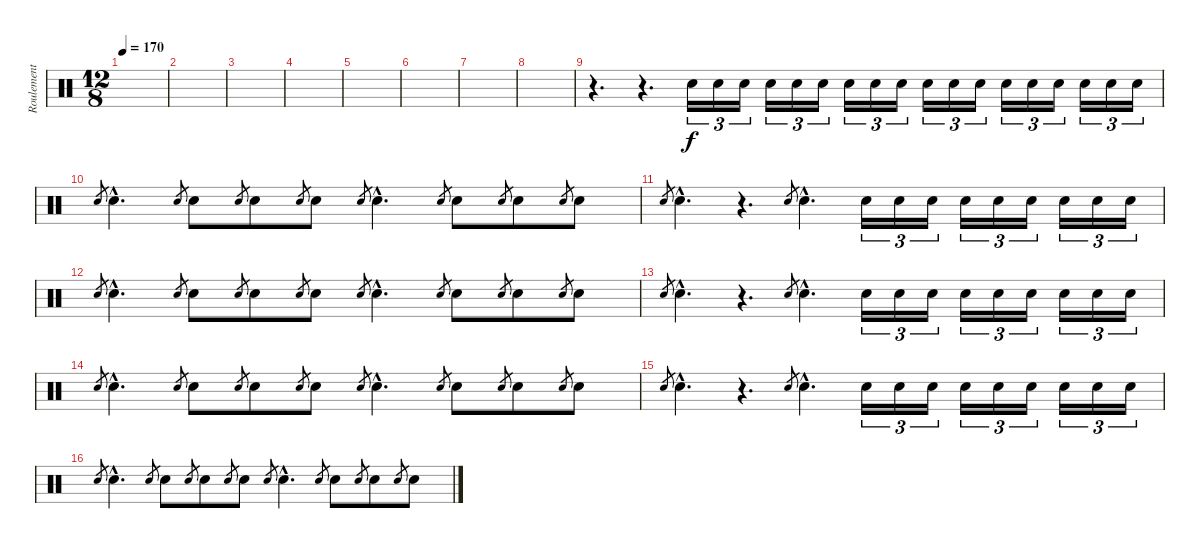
\track ("Roulement" "Roulement") {instrument percussion}
\staff {score}
\articulation defaults
\ts (12 8)
\tempo 170
\clef neutral
\ks c
|
|
|
|
|
|
|
|
r.4{d} r.4{d} "Electric Snare (hit)".16{tu (3 2)} "Electric Snare (hit)".16{tu (3 2)} "Electric Snare (hit)".16{tu (3 2)} "Electric Snare (hit)".16{tu (3 2)} "Electric Snare (hit)".16{tu (3 2)} "Electric Snare (hit)".16{tu (3 2)} "Electric Snare (hit)".16{tu (3 2)} "Electric Snare (hit)".16{tu (3 2)} "Electric Snare (hit)".16{tu (3 2)} "Electric Snare (hit)".16{tu (3 2)} "Electric Snare (hit)".16{tu (3 2)} "Electric Snare (hit)".16{tu (3 2)} "Electric Snare (hit)".16{tu (3 2)} "Electric Snare (hit)".16{tu (3 2)} "Electric Snare (hit)".16{tu (3 2)} "Electric Snare (hit)".16{tu (3 2)} "Electric Snare (hit)".16{tu (3 2)} "Electric Snare (hit)".16{tu (3 2)} |
"Electric Snare (hit)".8{gr} "Electric Snare (hit)"{hac}.4{d} "Electric Snare (hit)".8{gr} "Electric Snare (hit)".8 "Electric Snare (hit)".8{gr} "Electric Snare (hit)".8 "Electric Snare (hit)".8{gr} "Electric Snare (hit)".8 "Electric Snare (hit)".8{gr} "Electric Snare (hit)"{hac}.4{d} "Electric Snare (hit)".8{gr} "Electric Snare (hit)".8 "Electric Snare (hit)".8{gr} "Electric Snare (hit)".8 "Electric Snare (hit)".8{gr} "Electric Snare (hit)".8 |
"Electric Snare (hit)".8{gr} "Electric Snare (hit)"{hac}.4{d} r.4{d} "Electric Snare (hit)".8{gr} "Electric Snare (hit)"{hac}.4{d} "Electric Snare (hit)".16{tu (3 2)} "Electric Snare (hit)".16{tu (3 2)} "Electric Snare (hit)".16{tu (3 2)} "Electric Snare (hit)".16{tu (3 2)} "Electric Snare (hit)".16{tu (3 2)} "Electric Snare (hit)".16{tu (3 2)} "Electric Snare (hit)".16{tu (3 2)} "Electric Snare (hit)".16{tu (3 2)} "Electric Snare (hit)".16{tu (3 2)} |
"Electric Snare (hit)".8{gr} "Electric Snare (hit)"{hac}.4{d} "Electric Snare (hit)".8{gr} "Electric Snare (hit)".8 "Electric Snare (hit)".8{gr} "Electric Snare (hit)".8 "Electric Snare (hit)".8{gr} "Electric Snare (hit)".8 "Electric Snare (hit)".8{gr} "Electric Snare (hit)"{hac}.4{d} "Electric Snare (hit)".8{gr} "Electric Snare (hit)".8 "Electric Snare (hit)".8{gr} "Electric Snare (hit)".8 "Electric Snare (hit)".8{gr} "Electric Snare (hit)".8 |
"Electric Snare (hit)".8{gr} "Electric Snare (hit)"{hac}.4{d} r.4{d} "Electric Snare (hit)".8{gr} "Electric Snare (hit)"{hac}.4{d} "Electric Snare (hit)".16{tu (3 2)} "Electric Snare (hit)".16{tu (3 2)} "Electric Snare (hit)".16{tu (3 2)} "Electric Snare (hit)".16{tu (3 2)} "Electric Snare (hit)".16{tu (3 2)} "Electric Snare (hit)".16{tu (3 2)} "Electric Snare (hit)".16{tu (3 2)} "Electric Snare (hit)".16{tu (3 2)} "Electric Snare (hit)".16{tu (3 2)} |
"Electric Snare (hit)".8{gr} "Electric Snare (hit)"{hac}.4{d} "Electric Snare (hit)".8{gr} "Electric Snare (hit)".8 "Electric Snare (hit)".8{gr} "Electric Snare (hit)".8 "Electric Snare (hit)".8{gr} "Electric Snare (hit)".8 "Electric Snare (hit)".8{gr} "Electric Snare (hit)"{hac}.4{d} "Electric Snare (hit)".8{gr} "Electric Snare (hit)".8 "Electric Snare (hit)".8{gr} "Electric Snare (hit)".8 "Electric Snare (hit)".8{gr} "Electric Snare (hit)".8 |
"Electric Snare (hit)".8{gr} "Electric Snare (hit)"{hac}.4{d} r.4{d} "Electric Snare (hit)".8{gr} "Electric Snare (hit)"{hac}.4{d} "Electric Snare (hit)".16{tu (3 2)} "Electric Snare (hit)".16{tu (3 2)} "Electric Snare (hit)".16{tu (3 2)} "Electric Snare (hit)".16{tu (3 2)} "Electric Snare (hit)".16{tu (3 2)} "Electric Snare (hit)".16{tu (3 2)} "Electric Snare (hit)".16{tu (3 2)} "Electric Snare (hit)".16{tu (3 2)} "Electric Snare (hit)".16{tu (3 2)} |
"Electric Snare (hit)".8{gr} "Electric Snare (hit)"{hac}.4{d} "Electric Snare (hit)".8{gr} "Electric Snare (hit)".8 "Electric Snare (hit)".8{gr} "Electric Snare (hit)".8 "Electric Snare (hit)".8{gr} "Electric Snare (hit)".8 "Electric Snare (hit)".8{gr} "Electric Snare (hit)"{hac}.4{d} "Electric Snare (hit)".8{gr} "Electric Snare (hit)".8 "Electric Snare (hit)".8{gr} "Electric Snare (hit)".8 "Electric Snare (hit)".8{gr} "Electric Snare (hit)".8
